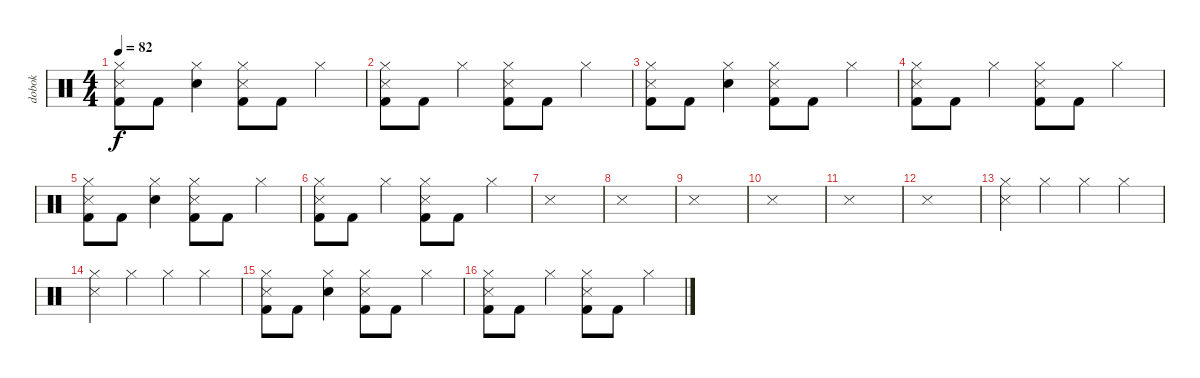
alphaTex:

\track ("dobok" "dobok") {instrument percussion}
\staff {score}
\articulation defaults
\ts (4 4)
\tempo 82
\clef neutral
\ks c
("Hi-Hat (closed)" "Snare (side stick) 3" "Kick (hit) 2").8{dy f} "Kick (hit) 2".8 ("Hi-Hat (closed)" "Snare (hit) 2").4 ("Hi-Hat (closed)" "Snare (side stick) 3" "Kick (hit) 2").8 "Kick (hit) 2".8 "Hi-Hat (closed)".4 |
("Hi-Hat (closed)" "Snare (side stick) 3" "Kick (hit) 2").8 "Kick (hit) 2".8 "Hi-Hat (closed)".4 ("Hi-Hat (closed)" "Snare (side stick) 3" "Kick (hit) 2").8 "Kick (hit) 2".8 "Hi-Hat (closed)".4 |
("Hi-Hat (closed)" "Snare (side stick) 3" "Kick (hit) 2").8 "Kick (hit) 2".8 ("Hi-Hat (closed)" "Snare (hit) 2").4 ("Hi-Hat (closed)" "Snare (side stick) 3" "Kick (hit) 2").8 "Kick (hit) 2".8 "Hi-Hat (closed)".4 |
("Hi-Hat (closed)" "Snare (side stick) 3" "Kick (hit) 2").8 "Kick (hit) 2".8 "Hi-Hat (closed)".4 ("Hi-Hat (closed)" "Snare (side stick) 3" "Kick (hit) 2").8 "Kick (hit) 2".8 "Hi-Hat (closed)".4 |
("Hi-Hat (closed)" "Snare (side stick) 3" "Kick (hit) 2").8 "Kick (hit) 2".8 ("Hi-Hat (closed)" "Snare (hit) 2").4 ("Hi-Hat (closed)" "Snare (side stick) 3" "Kick (hit) 2").8 "Kick (hit) 2".8 "Hi-Hat (closed)".4 |
("Hi-Hat (closed)" "Snare (side stick) 3" "Kick (hit) 2").8 "Kick (hit) 2".8 "Hi-Hat (closed)".4 ("Hi-Hat (closed)" "Snare (side stick) 3" "Kick (hit) 2").8 "Kick (hit) 2".8 "Hi-Hat (closed)".4 |
"Snare (side stick) 3".1 |
"Snare (side stick) 3".1 |
"Snare (side stick) 3".1 |
"Snare (side stick) 3".1 |
"Snare (side stick) 3".1 |
"Snare (side stick) 3".1 |
("Hi-Hat (closed)" "Snare (side stick) 3").4 "Hi-Hat (closed)".4 "Hi-Hat (closed)".4 "Hi-Hat (closed)".4 |
("Hi-Hat (closed)" "Snare (side stick) 3").4 "Hi-Hat (closed)".4 "Hi-Hat (closed)".4 "Hi-Hat (closed)".4 |
("Hi-Hat (closed)" "Snare (side stick) 3" "Kick (hit) 2").8 "Kick (hit) 2".8 ("Hi-Hat (closed)" "Snare (hit) 2").4 ("Hi-Hat (closed)" "Snare (side stick) 3" "Kick (hit) 2").8 "Kick (hit) 2".8 "Hi-Hat (closed)".4 |
("Hi-Hat (closed)" "Snare (side stick) 3" "Kick (hit) 2").8 "Kick (hit) 2".8 "Hi-Hat (closed)".4 ("Hi-Hat (closed)" "Snare (side stick) 3" "Kick (hit) 2").8 "Kick (hit) 2".8 "Hi-Hat (closed)".4
